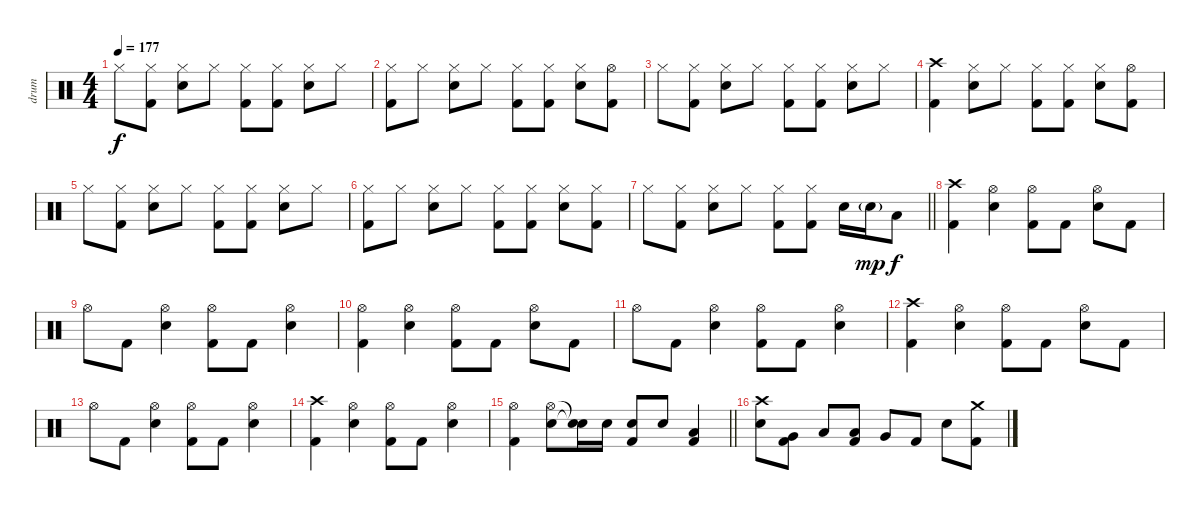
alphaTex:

\track ("drum" "drum") {instrument percussion}
\staff {score}
\articulation defaults
\ts (4 4)
\tempo 177
\clef neutral
\ks c "Hi-Hat (closed)".8{dy f}
("Hi-Hat (closed)" "Kick (hit) 2").8 ("Hi-Hat (closed)" "Electric Snare (hit)").8 "Hi-Hat (closed)".8 ("Hi-Hat (closed)" "Kick (hit) 2").8 ("Hi-Hat (closed)" "Kick (hit) 2").8 ("Hi-Hat (closed)" "Electric Snare (hit)").8 "Hi-Hat (closed)".8 |
("Hi-Hat (closed)" "Kick (hit) 2").8 "Hi-Hat (closed)".8 ("Hi-Hat (closed)" "Electric Snare (hit)").8 "Hi-Hat (closed)".8 ("Hi-Hat (closed)" "Kick (hit) 2").8 ("Hi-Hat (closed)" "Kick (hit) 2").8 ("Hi-Hat (closed)" "Electric Snare (hit)").8 ("Hi-Hat (open)" "Kick (hit) 2").8 |
"Hi-Hat (closed)".8 ("Hi-Hat (closed)" "Kick (hit) 2").8 ("Hi-Hat (closed)" "Electric Snare (hit)").8 "Hi-Hat (closed)".8 ("Hi-Hat (closed)" "Kick (hit) 2").8 ("Hi-Hat (closed)" "Kick (hit) 2").8 ("Hi-Hat (closed)" "Electric Snare (hit)").8 "Hi-Hat (closed)".8 |
("Crash high (hit)" "Kick (hit) 2").4 ("Hi-Hat (closed)" "Electric Snare (hit)").8 "Hi-Hat (closed)".8 ("Hi-Hat (closed)" "Kick (hit) 2").8 ("Hi-Hat (closed)" "Kick (hit) 2").8 ("Hi-Hat (closed)" "Electric Snare (hit)").8 ("Hi-Hat (open)" "Kick (hit) 2").8 |
"Hi-Hat (closed)".8 ("Hi-Hat (closed)" "Kick (hit) 2").8 ("Hi-Hat (closed)" "Electric Snare (hit)").8 "Hi-Hat (closed)".8 ("Hi-Hat (closed)" "Kick (hit) 2").8 ("Hi-Hat (closed)" "Kick (hit) 2").8 ("Hi-Hat (closed)" "Electric Snare (hit)").8 "Hi-Hat (closed)".8 |
("Hi-Hat (closed)" "Kick (hit) 2").8 "Hi-Hat (closed)".8 ("Hi-Hat (closed)" "Electric Snare (hit)").8 "Hi-Hat (closed)".8 ("Hi-Hat (closed)" "Kick (hit) 2").8 ("Hi-Hat (closed)" "Kick (hit) 2").8 ("Hi-Hat (closed)" "Electric Snare (hit)").8 ("Hi-Hat (closed)" "Kick (hit) 2").8 |
\barLineRight lightlight "Hi-Hat (closed)".8
("Hi-Hat (closed)" "Kick (hit) 2").8 ("Hi-Hat (closed)" "Electric Snare (hit)").8 "Hi-Hat (closed)".8 ("Hi-Hat (closed)" "Kick (hit) 2").8 ("Hi-Hat (closed)" "Kick (hit) 2").8 "Electric Snare (hit)".16 "Electric Snare (hit)"{g}.16{dy mp} "Low Tom (hit)".8{dy f} |
\section ("" "")
("Crash high (hit)" "Kick (hit) 2").4 ("Hi-Hat (open)" "Electric Snare (hit)").4 ("Hi-Hat (open)" "Kick (hit) 2").8 "Kick (hit) 2".8 ("Hi-Hat (open)" "Electric Snare (hit)").8 "Kick (hit) 2".8 |
"Hi-Hat (open)".8 "Kick (hit) 2".8 ("Hi-Hat (open)" "Electric Snare (hit)").4 ("Hi-Hat (open)" "Kick (hit) 2").8 "Kick (hit) 2".8 ("Hi-Hat (open)" "Electric Snare (hit)").4 |
("Hi-Hat (open)" "Kick (hit) 2").4 ("Hi-Hat (open)" "Electric Snare (hit)").4 ("Hi-Hat (open)" "Kick (hit) 2").8 "Kick (hit) 2".8 ("Hi-Hat (open)" "Electric Snare (hit)").8 "Kick (hit) 2".8 |
"Hi-Hat (open)".8 "Kick (hit) 2".8 ("Hi-Hat (open)" "Electric Snare (hit)").4 ("Hi-Hat (open)" "Kick (hit) 2").8 "Kick (hit) 2".8 ("Hi-Hat (open)" "Electric Snare (hit)").4 |
("Crash high (hit)" "Kick (hit) 2").4 ("Hi-Hat (open)" "Electric Snare (hit)").4 ("Hi-Hat (open)" "Kick (hit) 2").8 "Kick (hit) 2".8 ("Hi-Hat (open)" "Electric Snare (hit)").8 "Kick (hit) 2".8 |
"Hi-Hat (open)".8 "Kick (hit) 2".8 ("Hi-Hat (open)" "Electric Snare (hit)").4 ("Hi-Hat (open)" "Kick (hit) 2").8 "Kick (hit) 2".8 ("Hi-Hat (open)" "Electric Snare (hit)").4 |
("Crash high (hit)" "Kick (hit) 2").4 ("Hi-Hat (open)" "Electric Snare (hit)").4 ("Hi-Hat (open)" "Kick (hit) 2").8 "Kick (hit) 2".8 ("Hi-Hat (open)" "Electric Snare (hit)").4 |
\barLineRight lightlight
("Hi-Hat (open)" "Kick (hit) 2").4 ("Hi-Hat (open)" "Electric Snare (hit)").8 ("Snare (hit)"{t} "Snare (hit)"{t}).16 "Electric Snare (hit)".16 ("Electric Snare (hit)" "Kick (hit) 2").8 "Electric Snare (hit)".8 ("Low Tom (hit)" "Kick (hit) 2").4 |
\section ("" "")
("Crash high (hit)" "Electric Snare (hit)").8 ("Very Low Tom (hit)" "Kick (hit) 2").8 "Low Tom (hit)".8 ("Low Tom (hit)" "Kick (hit) 2").8 "Very Low Tom (hit)".8 "Kick (hit) 2".8 "Electric Snare (hit)".8 ("Crash medium (hit)" "Kick (hit) 2").8
